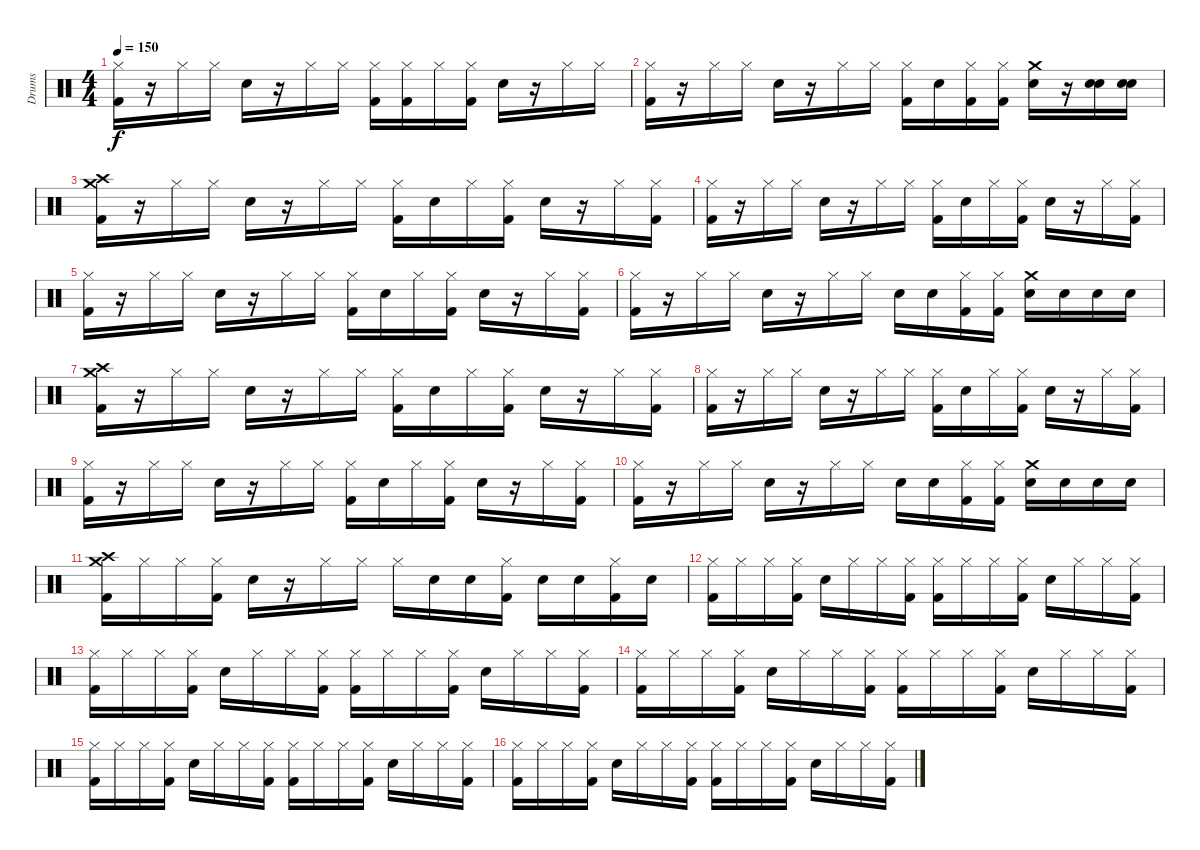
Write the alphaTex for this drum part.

\track ("Drums" "Drums") {instrument percussion}
\staff {score}
\articulation defaults
\ts (4 4)
\tempo 150
\clef neutral
\ks c
("Hi-Hat (closed)" "Kick (hit) 2").16{dy f} r.16 "Hi-Hat (closed)".16 "Hi-Hat (closed)".16 "Snare (hit) 2".16 r.16 "Hi-Hat (closed)".16 "Hi-Hat (closed)".16 ("Hi-Hat (closed)" "Kick (hit) 2").16 ("Hi-Hat (closed)" "Kick (hit) 2").16 "Hi-Hat (closed)".16 ("Hi-Hat (closed)" "Kick (hit) 2").16 "Snare (hit) 2".16 r.16 "Hi-Hat (closed)".16 "Hi-Hat (closed)".16 |
("Hi-Hat (closed)" "Kick (hit) 2").16 r.16 "Hi-Hat (closed)".16 "Hi-Hat (closed)".16 "Snare (hit) 2".16 r.16 "Hi-Hat (closed)".16 "Hi-Hat (closed)".16 ("Hi-Hat (closed)" "Kick (hit) 2").16 "Snare (hit) 2".16 ("Hi-Hat (closed)" "Kick (hit) 2").16 ("Hi-Hat (closed)" "Kick (hit) 2").16 ("Crash medium (hit)" "Snare (hit) 2").16 r.16 ("Snare (hit) 2" "Snare (hit) 2").16 ("Snare (hit) 2" "Snare (hit) 2").16 |
("Crash medium (hit)" "Crash high (hit)" "Kick (hit) 2").16 r.16 "Hi-Hat (closed)".16 "Hi-Hat (closed)".16 "Snare (hit) 2".16 r.16 "Hi-Hat (closed)".16 "Hi-Hat (closed)".16 ("Hi-Hat (closed)" "Kick (hit) 2").16 "Snare (hit) 2".16 "Hi-Hat (closed)".16 ("Hi-Hat (closed)" "Kick (hit) 2").16 "Snare (hit) 2".16 r.16 "Hi-Hat (closed)".16 ("Hi-Hat (closed)" "Kick (hit) 2").16 |
("Hi-Hat (closed)" "Kick (hit) 2").16 r.16 "Hi-Hat (closed)".16 "Hi-Hat (closed)".16 "Snare (hit) 2".16 r.16 "Hi-Hat (closed)".16 "Hi-Hat (closed)".16 ("Hi-Hat (closed)" "Kick (hit) 2").16 "Snare (hit) 2".16 "Hi-Hat (closed)".16 ("Hi-Hat (closed)" "Kick (hit) 2").16 "Snare (hit) 2".16 r.16 "Hi-Hat (closed)".16 ("Hi-Hat (closed)" "Kick (hit) 2").16 |
("Hi-Hat (closed)" "Kick (hit) 2").16 r.16 "Hi-Hat (closed)".16 "Hi-Hat (closed)".16 "Snare (hit) 2".16 r.16 "Hi-Hat (closed)".16 "Hi-Hat (closed)".16 ("Hi-Hat (closed)" "Kick (hit) 2").16 "Snare (hit) 2".16 "Hi-Hat (closed)".16 ("Hi-Hat (closed)" "Kick (hit) 2").16 "Snare (hit) 2".16 r.16 "Hi-Hat (closed)".16 ("Hi-Hat (closed)" "Kick (hit) 2").16 |
("Hi-Hat (closed)" "Kick (hit) 2").16 r.16 "Hi-Hat (closed)".16 "Hi-Hat (closed)".16 "Snare (hit) 2".16 r.16 "Hi-Hat (closed)".16 "Hi-Hat (closed)".16 "Snare (hit) 2".16 "Snare (hit) 2".16 ("Hi-Hat (closed)" "Kick (hit) 2").16 ("Hi-Hat (closed)" "Kick (hit) 2").16 ("Crash medium (hit)" "Snare (hit) 2").16 "Snare (hit) 2".16 "Snare (hit) 2".16 "Snare (hit) 2".16 |
("Crash medium (hit)" "Crash high (hit)" "Kick (hit) 2").16 r.16 "Hi-Hat (closed)".16 "Hi-Hat (closed)".16 "Snare (hit) 2".16 r.16 "Hi-Hat (closed)".16 "Hi-Hat (closed)".16 ("Hi-Hat (closed)" "Kick (hit) 2").16 "Snare (hit) 2".16 "Hi-Hat (closed)".16 ("Hi-Hat (closed)" "Kick (hit) 2").16 "Snare (hit) 2".16 r.16 "Hi-Hat (closed)".16 ("Hi-Hat (closed)" "Kick (hit) 2").16 |
("Hi-Hat (closed)" "Kick (hit) 2").16 r.16 "Hi-Hat (closed)".16 "Hi-Hat (closed)".16 "Snare (hit) 2".16 r.16 "Hi-Hat (closed)".16 "Hi-Hat (closed)".16 ("Hi-Hat (closed)" "Kick (hit) 2").16 "Snare (hit) 2".16 "Hi-Hat (closed)".16 ("Hi-Hat (closed)" "Kick (hit) 2").16 "Snare (hit) 2".16 r.16 "Hi-Hat (closed)".16 ("Hi-Hat (closed)" "Kick (hit) 2").16 |
("Hi-Hat (closed)" "Kick (hit) 2").16 r.16 "Hi-Hat (closed)".16 "Hi-Hat (closed)".16 "Snare (hit) 2".16 r.16 "Hi-Hat (closed)".16 "Hi-Hat (closed)".16 ("Hi-Hat (closed)" "Kick (hit) 2").16 "Snare (hit) 2".16 "Hi-Hat (closed)".16 ("Hi-Hat (closed)" "Kick (hit) 2").16 "Snare (hit) 2".16 r.16 "Hi-Hat (closed)".16 ("Hi-Hat (closed)" "Kick (hit) 2").16 |
("Hi-Hat (closed)" "Kick (hit) 2").16 r.16 "Hi-Hat (closed)".16 "Hi-Hat (closed)".16 "Snare (hit) 2".16 r.16 "Hi-Hat (closed)".16 "Hi-Hat (closed)".16 "Snare (hit) 2".16 "Snare (hit) 2".16 ("Hi-Hat (closed)" "Kick (hit) 2").16 ("Hi-Hat (closed)" "Kick (hit) 2").16 ("Crash medium (hit)" "Snare (hit) 2").16 "Snare (hit) 2".16 "Snare (hit) 2".16 "Snare (hit) 2".16 |
("Crash medium (hit)" "Crash high (hit)" "Kick (hit) 2").16 "Hi-Hat (closed)".16 "Hi-Hat (closed)".16 ("Hi-Hat (closed)" "Kick (hit) 2").16 "Snare (hit) 2".16 r.16 "Hi-Hat (closed)".16 "Hi-Hat (closed)".16 "Hi-Hat (closed)".16 "Snare (hit) 2".16 "Snare (hit) 2".16 ("Hi-Hat (closed)" "Kick (hit) 2").16 "Snare (hit) 2".16 "Snare (hit) 2".16 ("Hi-Hat (closed)" "Kick (hit) 2").16 "Snare (hit) 2".16 |
("Hi-Hat (closed)" "Kick (hit) 2").16 "Hi-Hat (closed)".16 "Hi-Hat (closed)".16 ("Hi-Hat (closed)" "Kick (hit) 2").16 "Snare (hit) 2".16 "Hi-Hat (closed)".16 "Hi-Hat (closed)".16 ("Hi-Hat (closed)" "Kick (hit) 2").16 ("Hi-Hat (closed)" "Kick (hit) 2").16 "Hi-Hat (closed)".16 "Hi-Hat (closed)".16 ("Hi-Hat (closed)" "Kick (hit) 2").16 "Snare (hit) 2".16 "Hi-Hat (closed)".16 "Hi-Hat (closed)".16 ("Hi-Hat (closed)" "Kick (hit) 2").16 |
("Hi-Hat (closed)" "Kick (hit) 2").16 "Hi-Hat (closed)".16 "Hi-Hat (closed)".16 ("Hi-Hat (closed)" "Kick (hit) 2").16 "Snare (hit) 2".16 "Hi-Hat (closed)".16 "Hi-Hat (closed)".16 ("Hi-Hat (closed)" "Kick (hit) 2").16 ("Hi-Hat (closed)" "Kick (hit) 2").16 "Hi-Hat (closed)".16 "Hi-Hat (closed)".16 ("Hi-Hat (closed)" "Kick (hit) 2").16 "Snare (hit) 2".16 "Hi-Hat (closed)".16 "Hi-Hat (closed)".16 ("Hi-Hat (closed)" "Kick (hit) 2").16 |
("Hi-Hat (closed)" "Kick (hit) 2").16 "Hi-Hat (closed)".16 "Hi-Hat (closed)".16 ("Hi-Hat (closed)" "Kick (hit) 2").16 "Snare (hit) 2".16 "Hi-Hat (closed)".16 "Hi-Hat (closed)".16 ("Hi-Hat (closed)" "Kick (hit) 2").16 ("Hi-Hat (closed)" "Kick (hit) 2").16 "Hi-Hat (closed)".16 "Hi-Hat (closed)".16 ("Hi-Hat (closed)" "Kick (hit) 2").16 "Snare (hit) 2".16 "Hi-Hat (closed)".16 "Hi-Hat (closed)".16 ("Hi-Hat (closed)" "Kick (hit) 2").16 |
("Hi-Hat (closed)" "Kick (hit) 2").16 "Hi-Hat (closed)".16 "Hi-Hat (closed)".16 ("Hi-Hat (closed)" "Kick (hit) 2").16 "Snare (hit) 2".16 "Hi-Hat (closed)".16 "Hi-Hat (closed)".16 ("Hi-Hat (closed)" "Kick (hit) 2").16 ("Hi-Hat (closed)" "Kick (hit) 2").16 "Hi-Hat (closed)".16 "Hi-Hat (closed)".16 ("Hi-Hat (closed)" "Kick (hit) 2").16 "Snare (hit) 2".16 "Hi-Hat (closed)".16 "Hi-Hat (closed)".16 ("Hi-Hat (closed)" "Kick (hit) 2").16 |
("Hi-Hat (closed)" "Kick (hit) 2").16 "Hi-Hat (closed)".16 "Hi-Hat (closed)".16 ("Hi-Hat (closed)" "Kick (hit) 2").16 "Snare (hit) 2".16{volume 0} "Hi-Hat (closed)".16 "Hi-Hat (closed)".16 ("Hi-Hat (closed)" "Kick (hit) 2").16 ("Hi-Hat (closed)" "Kick (hit) 2").16 "Hi-Hat (closed)".16 "Hi-Hat (closed)".16 ("Hi-Hat (closed)" "Kick (hit) 2").16 "Snare (hit) 2".16 "Hi-Hat (closed)".16 "Hi-Hat (closed)".16 ("Hi-Hat (closed)" "Kick (hit) 2").16
